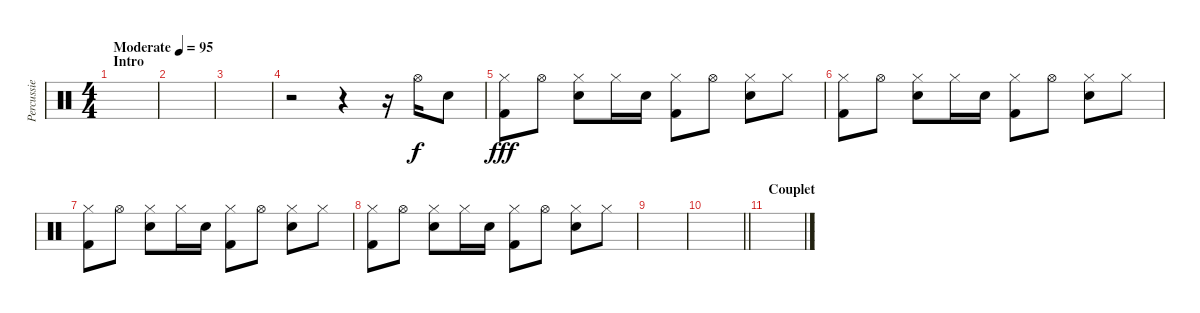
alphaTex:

\track ("Percussie" "Percussie") {instrument percussion}
\staff {score}
\articulation defaults
\ts (4 4)
\section ("" "Intro")
\tempo (95 "Moderate")
\clef neutral
\ks c
|
|
|
r.2 r.4 r.16 "Hi-Hat (open)".16 "Snare (hit) 2".8 |
("Hi-Hat (closed)" "Kick (hit) 2").8{dy fff} "Hi-Hat (open)".8 ("Hi-Hat (closed)" "Snare (hit) 2").8 "Hi-Hat (closed)".16 "Snare (hit) 2".16 ("Hi-Hat (closed)" "Kick (hit) 2").8 "Hi-Hat (open)".8 ("Hi-Hat (closed)" "Snare (hit) 2").8 "Hi-Hat (closed)".8 |
("Hi-Hat (closed)" "Kick (hit) 2").8 "Hi-Hat (open)".8 ("Hi-Hat (closed)" "Snare (hit) 2").8 "Hi-Hat (closed)".16 "Snare (hit) 2".16 ("Hi-Hat (closed)" "Kick (hit) 2").8 "Hi-Hat (open)".8 ("Hi-Hat (closed)" "Snare (hit) 2").8 "Hi-Hat (closed)".8 |
("Hi-Hat (closed)" "Kick (hit) 2").8 "Hi-Hat (open)".8 ("Hi-Hat (closed)" "Snare (hit) 2").8 "Hi-Hat (closed)".16 "Snare (hit) 2".16 ("Hi-Hat (closed)" "Kick (hit) 2").8 "Hi-Hat (open)".8 ("Hi-Hat (closed)" "Snare (hit) 2").8 "Hi-Hat (closed)".8 |
("Hi-Hat (closed)" "Kick (hit) 2").8 "Hi-Hat (open)".8 ("Hi-Hat (closed)" "Snare (hit) 2").8 "Hi-Hat (closed)".16 "Snare (hit) 2".16 ("Hi-Hat (closed)" "Kick (hit) 2").8 "Hi-Hat (open)".8 ("Hi-Hat (closed)" "Snare (hit) 2").8 "Hi-Hat (closed)".8 |
|
\barLineRight lightlight
|
\section ("" "Couplet ")
